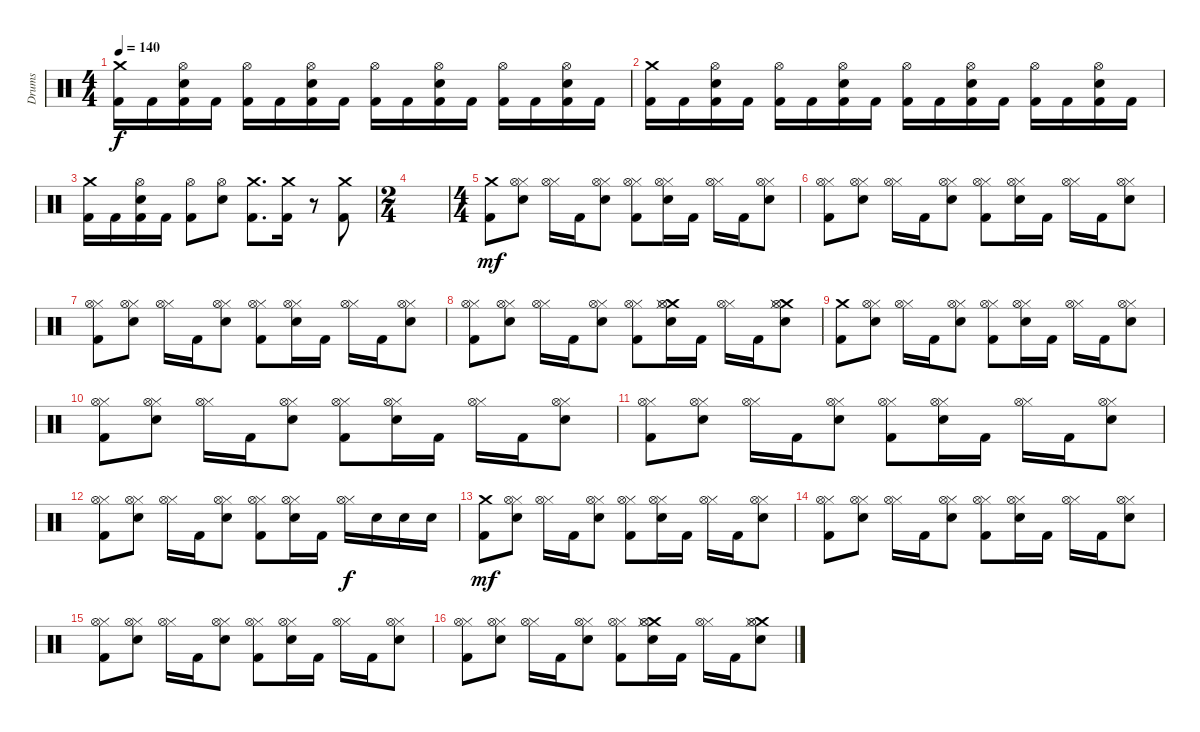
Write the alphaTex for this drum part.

\track ("Drums" "Drums") {instrument percussion}
\staff {score}
\articulation defaults
\ts (4 4)
\tempo 140
\clef neutral
\ks c
("Crash medium (hit)" "Kick (hit) 2").16{dy f} "Kick (hit) 2".16 ("Hi-Hat (open)" "Electric Snare (hit)" "Kick (hit) 2").16 "Kick (hit) 2".16 ("Hi-Hat (open)" "Kick (hit) 2").16 "Kick (hit) 2".16 ("Hi-Hat (open)" "Electric Snare (hit)" "Kick (hit) 2").16 "Kick (hit) 2".16 ("Hi-Hat (open)" "Kick (hit) 2").16 "Kick (hit) 2".16 ("Hi-Hat (open)" "Electric Snare (hit)" "Kick (hit) 2").16 "Kick (hit) 2".16 ("Hi-Hat (open)" "Kick (hit) 2").16 "Kick (hit) 2".16 ("Hi-Hat (open)" "Electric Snare (hit)" "Kick (hit) 2").16 "Kick (hit) 2".16 |
("Crash medium (hit)" "Kick (hit) 2").16 "Kick (hit) 2".16 ("Hi-Hat (open)" "Electric Snare (hit)" "Kick (hit) 2").16 "Kick (hit) 2".16 ("Hi-Hat (open)" "Kick (hit) 2").16 "Kick (hit) 2".16 ("Hi-Hat (open)" "Electric Snare (hit)" "Kick (hit) 2").16 "Kick (hit) 2".16 ("Hi-Hat (open)" "Kick (hit) 2").16 "Kick (hit) 2".16 ("Hi-Hat (open)" "Electric Snare (hit)" "Kick (hit) 2").16 "Kick (hit) 2".16 ("Hi-Hat (open)" "Kick (hit) 2").16 "Kick (hit) 2".16 ("Hi-Hat (open)" "Electric Snare (hit)" "Kick (hit) 2").16 "Kick (hit) 2".16 |
("Crash medium (hit)" "Kick (hit) 2").16 "Kick (hit) 2".16 ("Hi-Hat (open)" "Electric Snare (hit)" "Kick (hit) 2").16 "Kick (hit) 2".16 ("Hi-Hat (open)" "Kick (hit) 2").8 ("Hi-Hat (open)" "Electric Snare (hit)").8 ("Crash medium (hit)" "Kick (hit) 2").8{d} ("Crash medium (hit)" "Kick (hit) 2").16 r.8 ("Crash medium (hit)" "Kick (hit) 2").8 |
\ts (2 4)
|
\ts (4 4)
("Crash medium (hit)" "Kick (hit) 2").8{dy mf} ("Hi-Hat (closed)" "Hi-Hat (open)" "Electric Snare (hit)").8 ("Hi-Hat (closed)" "Hi-Hat (open)").16 "Kick (hit) 2".16 ("Hi-Hat (closed)" "Hi-Hat (open)" "Electric Snare (hit)").8 ("Hi-Hat (closed)" "Hi-Hat (open)" "Kick (hit) 2").8 ("Hi-Hat (closed)" "Hi-Hat (open)" "Electric Snare (hit)").16 "Kick (hit) 2".16 ("Hi-Hat (closed)" "Hi-Hat (open)").16 "Kick (hit) 2".16 ("Hi-Hat (closed)" "Hi-Hat (open)" "Electric Snare (hit)").8 |
("Hi-Hat (closed)" "Hi-Hat (open)" "Kick (hit) 2").8 ("Hi-Hat (closed)" "Hi-Hat (open)" "Electric Snare (hit)").8 ("Hi-Hat (closed)" "Hi-Hat (open)").16 "Kick (hit) 2".16 ("Hi-Hat (closed)" "Hi-Hat (open)" "Electric Snare (hit)").8 ("Hi-Hat (closed)" "Hi-Hat (open)" "Kick (hit) 2").8 ("Hi-Hat (closed)" "Hi-Hat (open)" "Electric Snare (hit)").16 "Kick (hit) 2".16 ("Hi-Hat (closed)" "Hi-Hat (open)").16 "Kick (hit) 2".16 ("Hi-Hat (closed)" "Hi-Hat (open)" "Electric Snare (hit)").8 |
("Hi-Hat (closed)" "Hi-Hat (open)" "Kick (hit) 2").8 ("Hi-Hat (closed)" "Hi-Hat (open)" "Electric Snare (hit)").8 ("Hi-Hat (closed)" "Hi-Hat (open)").16 "Kick (hit) 2".16 ("Hi-Hat (closed)" "Hi-Hat (open)" "Electric Snare (hit)").8 ("Hi-Hat (closed)" "Hi-Hat (open)" "Kick (hit) 2").8 ("Hi-Hat (closed)" "Hi-Hat (open)" "Electric Snare (hit)").16 "Kick (hit) 2".16 ("Hi-Hat (closed)" "Hi-Hat (open)").16 "Kick (hit) 2".16 ("Hi-Hat (closed)" "Hi-Hat (open)" "Electric Snare (hit)").8 |
("Hi-Hat (closed)" "Hi-Hat (open)" "Kick (hit) 2").8 ("Hi-Hat (closed)" "Hi-Hat (open)" "Electric Snare (hit)").8 ("Hi-Hat (closed)" "Hi-Hat (open)").16 "Kick (hit) 2".16 ("Hi-Hat (closed)" "Hi-Hat (open)" "Electric Snare (hit)").8 ("Hi-Hat (closed)" "Hi-Hat (open)" "Kick (hit) 2").8 ("Crash medium (hit)" "Hi-Hat (closed)" "Hi-Hat (open)" "Electric Snare (hit)").16 "Kick (hit) 2".16 ("Hi-Hat (closed)" "Hi-Hat (open)").16 "Kick (hit) 2".16 ("Crash medium (hit)" "Hi-Hat (closed)" "Hi-Hat (open)" "Electric Snare (hit)").8 |
("Crash medium (hit)" "Kick (hit) 2").8 ("Hi-Hat (closed)" "Hi-Hat (open)" "Electric Snare (hit)").8 ("Hi-Hat (closed)" "Hi-Hat (open)").16 "Kick (hit) 2".16 ("Hi-Hat (closed)" "Hi-Hat (open)" "Electric Snare (hit)").8 ("Hi-Hat (closed)" "Hi-Hat (open)" "Kick (hit) 2").8 ("Hi-Hat (closed)" "Hi-Hat (open)" "Electric Snare (hit)").16 "Kick (hit) 2".16 ("Hi-Hat (closed)" "Hi-Hat (open)").16 "Kick (hit) 2".16 ("Hi-Hat (closed)" "Hi-Hat (open)" "Electric Snare (hit)").8 |
("Hi-Hat (closed)" "Hi-Hat (open)" "Kick (hit) 2").8 ("Hi-Hat (closed)" "Hi-Hat (open)" "Electric Snare (hit)").8 ("Hi-Hat (closed)" "Hi-Hat (open)").16 "Kick (hit) 2".16 ("Hi-Hat (closed)" "Hi-Hat (open)" "Electric Snare (hit)").8 ("Hi-Hat (closed)" "Hi-Hat (open)" "Kick (hit) 2").8 ("Hi-Hat (closed)" "Hi-Hat (open)" "Electric Snare (hit)").16 "Kick (hit) 2".16 ("Hi-Hat (closed)" "Hi-Hat (open)").16 "Kick (hit) 2".16 ("Hi-Hat (closed)" "Hi-Hat (open)" "Electric Snare (hit)").8 |
("Hi-Hat (closed)" "Hi-Hat (open)" "Kick (hit) 2").8 ("Hi-Hat (closed)" "Hi-Hat (open)" "Electric Snare (hit)").8 ("Hi-Hat (closed)" "Hi-Hat (open)").16 "Kick (hit) 2".16 ("Hi-Hat (closed)" "Hi-Hat (open)" "Electric Snare (hit)").8 ("Hi-Hat (closed)" "Hi-Hat (open)" "Kick (hit) 2").8 ("Hi-Hat (closed)" "Hi-Hat (open)" "Electric Snare (hit)").16 "Kick (hit) 2".16 ("Hi-Hat (closed)" "Hi-Hat (open)").16 "Kick (hit) 2".16 ("Hi-Hat (closed)" "Hi-Hat (open)" "Electric Snare (hit)").8 |
("Hi-Hat (closed)" "Hi-Hat (open)" "Kick (hit) 2").8 ("Hi-Hat (closed)" "Hi-Hat (open)" "Electric Snare (hit)").8 ("Hi-Hat (closed)" "Hi-Hat (open)").16 "Kick (hit) 2".16 ("Hi-Hat (closed)" "Hi-Hat (open)" "Electric Snare (hit)").8 ("Hi-Hat (closed)" "Hi-Hat (open)" "Kick (hit) 2").8 ("Hi-Hat (closed)" "Hi-Hat (open)" "Electric Snare (hit)").16 "Kick (hit) 2".16 ("Hi-Hat (closed)" "Hi-Hat (open)").16{dy f} "Electric Snare (hit)".16 "Electric Snare (hit)".16 "Electric Snare (hit)".16 |
("Crash medium (hit)" "Kick (hit) 2").8{dy mf} ("Hi-Hat (closed)" "Hi-Hat (open)" "Electric Snare (hit)").8 ("Hi-Hat (closed)" "Hi-Hat (open)").16 "Kick (hit) 2".16 ("Hi-Hat (closed)" "Hi-Hat (open)" "Electric Snare (hit)").8 ("Hi-Hat (closed)" "Hi-Hat (open)" "Kick (hit) 2").8 ("Hi-Hat (closed)" "Hi-Hat (open)" "Electric Snare (hit)").16 "Kick (hit) 2".16 ("Hi-Hat (closed)" "Hi-Hat (open)").16 "Kick (hit) 2".16 ("Hi-Hat (closed)" "Hi-Hat (open)" "Electric Snare (hit)").8 |
("Hi-Hat (closed)" "Hi-Hat (open)" "Kick (hit) 2").8 ("Hi-Hat (closed)" "Hi-Hat (open)" "Electric Snare (hit)").8 ("Hi-Hat (closed)" "Hi-Hat (open)").16 "Kick (hit) 2".16 ("Hi-Hat (closed)" "Hi-Hat (open)" "Electric Snare (hit)").8 ("Hi-Hat (closed)" "Hi-Hat (open)" "Kick (hit) 2").8 ("Hi-Hat (closed)" "Hi-Hat (open)" "Electric Snare (hit)").16 "Kick (hit) 2".16 ("Hi-Hat (closed)" "Hi-Hat (open)").16 "Kick (hit) 2".16 ("Hi-Hat (closed)" "Hi-Hat (open)" "Electric Snare (hit)").8 |
("Hi-Hat (closed)" "Hi-Hat (open)" "Kick (hit) 2").8 ("Hi-Hat (closed)" "Hi-Hat (open)" "Electric Snare (hit)").8 ("Hi-Hat (closed)" "Hi-Hat (open)").16 "Kick (hit) 2".16 ("Hi-Hat (closed)" "Hi-Hat (open)" "Electric Snare (hit)").8 ("Hi-Hat (closed)" "Hi-Hat (open)" "Kick (hit) 2").8 ("Hi-Hat (closed)" "Hi-Hat (open)" "Electric Snare (hit)").16 "Kick (hit) 2".16 ("Hi-Hat (closed)" "Hi-Hat (open)").16 "Kick (hit) 2".16 ("Hi-Hat (closed)" "Hi-Hat (open)" "Electric Snare (hit)").8 |
("Hi-Hat (closed)" "Hi-Hat (open)" "Kick (hit) 2").8 ("Hi-Hat (closed)" "Hi-Hat (open)" "Electric Snare (hit)").8 ("Hi-Hat (closed)" "Hi-Hat (open)").16 "Kick (hit) 2".16 ("Hi-Hat (closed)" "Hi-Hat (open)" "Electric Snare (hit)").8 ("Hi-Hat (closed)" "Hi-Hat (open)" "Kick (hit) 2").8 ("Crash medium (hit)" "Hi-Hat (closed)" "Hi-Hat (open)" "Electric Snare (hit)").16 "Kick (hit) 2".16 ("Hi-Hat (closed)" "Hi-Hat (open)").16 "Kick (hit) 2".16 ("Crash medium (hit)" "Hi-Hat (closed)" "Hi-Hat (open)" "Electric Snare (hit)").8
